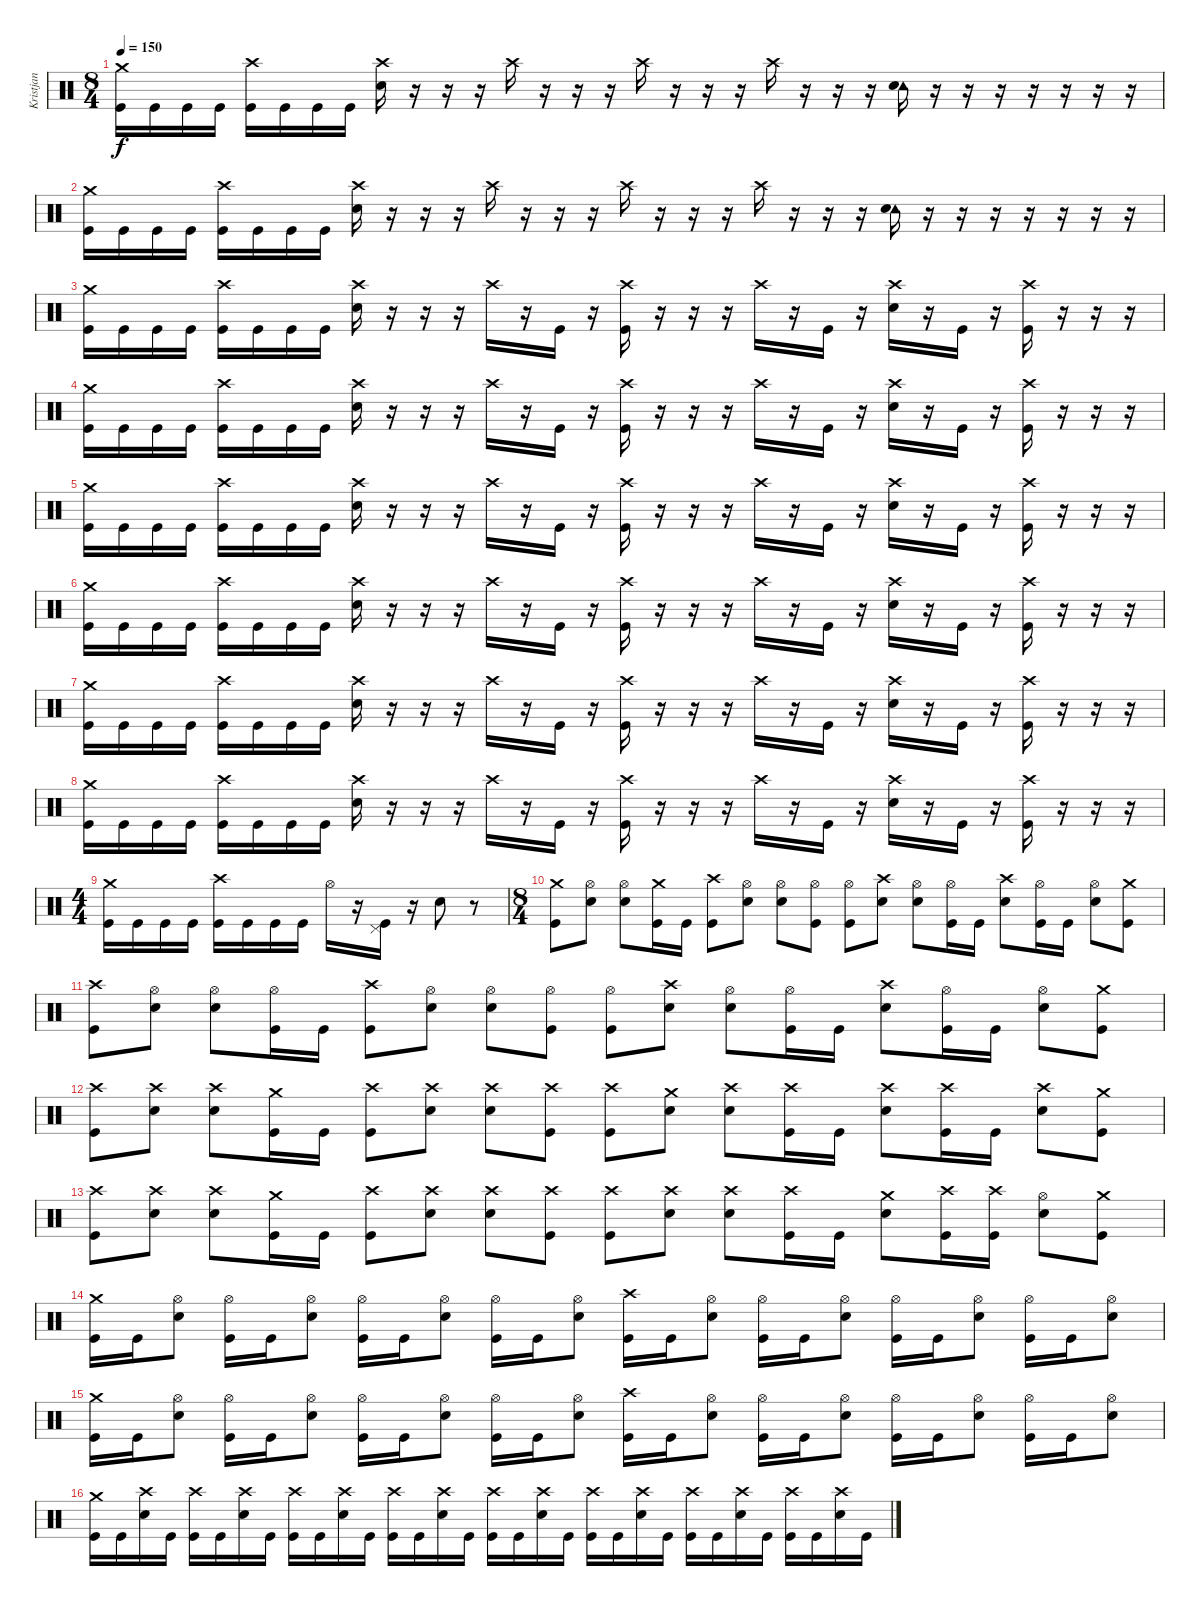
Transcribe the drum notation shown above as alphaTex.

\track ("Kristjan" "Kristjan") {instrument percussion}
\staff {score}
\articulation defaults
\ts (8 4)
\tempo 150
\clef neutral
\ks c
("Crash medium (hit)" "Kick (hit)").16{dy f} "Kick (hit)".16 "Kick (hit)".16 "Kick (hit)".16 ("Crash high (hit)" "Kick (hit)").16 "Kick (hit)".16 "Kick (hit)".16 "Kick (hit)".16 ("Crash high (hit)" "Electric Snare (hit)").16 r.16 r.16 r.16 "Crash high (hit)".16 r.16 r.16 r.16 "Crash high (hit)".16 r.16 r.16 r.16 "Crash high (hit)".16 r.16 r.16 r.16 ("Tambourine (hit)" "Electric Snare (hit)").16 r.16 r.16 r.16 r.16 r.16 r.16 r.16 |
("Crash medium (hit)" "Kick (hit)").16 "Kick (hit)".16 "Kick (hit)".16 "Kick (hit)".16 ("Crash high (hit)" "Kick (hit)").16 "Kick (hit)".16 "Kick (hit)".16 "Kick (hit)".16 ("Crash high (hit)" "Electric Snare (hit)").16 r.16 r.16 r.16 "Crash high (hit)".16 r.16 r.16 r.16 "Crash high (hit)".16 r.16 r.16 r.16 "Crash high (hit)".16 r.16 r.16 r.16 ("Tambourine (hit)" "Electric Snare (hit)").16 r.16 r.16 r.16 r.16 r.16 r.16 r.16 |
("Crash medium (hit)" "Kick (hit)").16 "Kick (hit)".16 "Kick (hit)".16 "Kick (hit)".16 ("Crash high (hit)" "Kick (hit)").16 "Kick (hit)".16 "Kick (hit)".16 "Kick (hit)".16 ("Crash high (hit)" "Electric Snare (hit)").16 r.16 r.16 r.16 "Crash high (hit)".16 r.16 "Kick (hit)".16 r.16 ("Crash high (hit)" "Kick (hit)").16 r.16 r.16 r.16 "Crash high (hit)".16 r.16 "Kick (hit)".16 r.16 ("Crash high (hit)" "Electric Snare (hit)").16 r.16 "Kick (hit)".16 r.16 ("Crash high (hit)" "Kick (hit)").16 r.16 r.16 r.16 |
("Crash medium (hit)" "Kick (hit)").16 "Kick (hit)".16 "Kick (hit)".16 "Kick (hit)".16 ("Crash high (hit)" "Kick (hit)").16 "Kick (hit)".16 "Kick (hit)".16 "Kick (hit)".16 ("Crash high (hit)" "Electric Snare (hit)").16 r.16 r.16 r.16 "Crash high (hit)".16 r.16 "Kick (hit)".16 r.16 ("Crash high (hit)" "Kick (hit)").16 r.16 r.16 r.16 "Crash high (hit)".16 r.16 "Kick (hit)".16 r.16 ("Crash high (hit)" "Electric Snare (hit)").16 r.16 "Kick (hit)".16 r.16 ("Crash high (hit)" "Kick (hit)").16 r.16 r.16 r.16 |
("Crash medium (hit)" "Kick (hit)").16 "Kick (hit)".16 "Kick (hit)".16 "Kick (hit)".16 ("Crash high (hit)" "Kick (hit)").16 "Kick (hit)".16 "Kick (hit)".16 "Kick (hit)".16 ("Crash high (hit)" "Electric Snare (hit)").16 r.16 r.16 r.16 "Crash high (hit)".16 r.16 "Kick (hit)".16 r.16 ("Crash high (hit)" "Kick (hit)").16 r.16 r.16 r.16 "Crash high (hit)".16 r.16 "Kick (hit)".16 r.16 ("Crash high (hit)" "Electric Snare (hit)").16 r.16 "Kick (hit)".16 r.16 ("Crash high (hit)" "Kick (hit)").16 r.16 r.16 r.16 |
("Crash medium (hit)" "Kick (hit)").16 "Kick (hit)".16 "Kick (hit)".16 "Kick (hit)".16 ("Crash high (hit)" "Kick (hit)").16 "Kick (hit)".16 "Kick (hit)".16 "Kick (hit)".16 ("Crash high (hit)" "Electric Snare (hit)").16 r.16 r.16 r.16 "Crash high (hit)".16 r.16 "Kick (hit)".16 r.16 ("Crash high (hit)" "Kick (hit)").16 r.16 r.16 r.16 "Crash high (hit)".16 r.16 "Kick (hit)".16 r.16 ("Crash high (hit)" "Electric Snare (hit)").16 r.16 "Kick (hit)".16 r.16 ("Crash high (hit)" "Kick (hit)").16 r.16 r.16 r.16 |
("Crash medium (hit)" "Kick (hit)").16 "Kick (hit)".16 "Kick (hit)".16 "Kick (hit)".16 ("Crash high (hit)" "Kick (hit)").16 "Kick (hit)".16 "Kick (hit)".16 "Kick (hit)".16 ("Crash high (hit)" "Electric Snare (hit)").16 r.16 r.16 r.16 "Crash high (hit)".16 r.16 "Kick (hit)".16 r.16 ("Crash high (hit)" "Kick (hit)").16 r.16 r.16 r.16 "Crash high (hit)".16 r.16 "Kick (hit)".16 r.16 ("Crash high (hit)" "Electric Snare (hit)").16 r.16 "Kick (hit)".16 r.16 ("Crash high (hit)" "Kick (hit)").16 r.16 r.16 r.16 |
("Crash medium (hit)" "Kick (hit)").16 "Kick (hit)".16 "Kick (hit)".16 "Kick (hit)".16 ("Crash high (hit)" "Kick (hit)").16 "Kick (hit)".16 "Kick (hit)".16 "Kick (hit)".16 ("Crash high (hit)" "Electric Snare (hit)").16 r.16 r.16 r.16 "Crash high (hit)".16 r.16 "Kick (hit)".16 r.16 ("Crash high (hit)" "Kick (hit)").16 r.16 r.16 r.16 "Crash high (hit)".16 r.16 "Kick (hit)".16 r.16 ("Crash high (hit)" "Electric Snare (hit)").16 r.16 "Kick (hit)".16 r.16 ("Crash high (hit)" "Kick (hit)").16 r.16 r.16 r.16 |
\ts (4 4)
("Crash medium (hit)" "Kick (hit)").16 "Kick (hit)".16 "Kick (hit)".16 "Kick (hit)".16 ("Crash high (hit)" "Kick (hit)").16 "Kick (hit)".16 "Kick (hit)".16 "Kick (hit)".16 "Hi-Hat (open)".16 r.16 ("Pedal Hi-Hat (hit)" "Kick (hit)").16 r.16 "Electric Snare (hit)".8 r.8 |
\ts (8 4)
("Crash medium (hit)" "Kick (hit)").8 ("Hi-Hat (open)" "Electric Snare (hit)").8 ("Hi-Hat (open)" "Electric Snare (hit)").8 ("Crash medium (hit)" "Kick (hit)").16 "Kick (hit)".16 ("Crash high (hit)" "Kick (hit)").8 ("Hi-Hat (open)" "Electric Snare (hit)").8 ("Hi-Hat (open)" "Electric Snare (hit)").8 ("Hi-Hat (open)" "Kick (hit)").8 ("Hi-Hat (open)" "Kick (hit)").8 ("Crash high (hit)" "Electric Snare (hit)").8 ("Hi-Hat (open)" "Electric Snare (hit)").8 ("Hi-Hat (open)" "Kick (hit)").16 "Kick (hit)".16 ("Crash high (hit)" "Electric Snare (hit)").8 ("Hi-Hat (open)" "Kick (hit)").16 "Kick (hit)".16 ("Hi-Hat (open)" "Electric Snare (hit)").8 ("Crash medium (hit)" "Kick (hit)").8 |
("Crash high (hit)" "Kick (hit)").8 ("Hi-Hat (open)" "Electric Snare (hit)").8 ("Hi-Hat (open)" "Electric Snare (hit)").8 ("Hi-Hat (open)" "Kick (hit)").16 "Kick (hit)".16 ("Crash high (hit)" "Kick (hit)").8 ("Hi-Hat (open)" "Electric Snare (hit)").8 ("Hi-Hat (open)" "Electric Snare (hit)").8 ("Hi-Hat (open)" "Kick (hit)").8 ("Hi-Hat (open)" "Kick (hit)").8 ("Crash high (hit)" "Electric Snare (hit)").8 ("Hi-Hat (open)" "Electric Snare (hit)").8 ("Hi-Hat (open)" "Kick (hit)").16 "Kick (hit)".16 ("Crash high (hit)" "Electric Snare (hit)").8 ("Hi-Hat (open)" "Kick (hit)").16 "Kick (hit)".16 ("Hi-Hat (open)" "Electric Snare (hit)").8 ("Crash medium (hit)" "Kick (hit)").8 |
("Crash high (hit)" "Kick (hit)").8 ("Crash high (hit)" "Electric Snare (hit)").8 ("Crash high (hit)" "Electric Snare (hit)").8 ("Crash medium (hit)" "Kick (hit)").16 "Kick (hit)".16 ("Crash high (hit)" "Kick (hit)").8 ("Crash high (hit)" "Electric Snare (hit)").8 ("Crash high (hit)" "Electric Snare (hit)").8 ("Crash high (hit)" "Kick (hit)").8 ("Crash high (hit)" "Kick (hit)").8 ("Crash medium (hit)" "Electric Snare (hit)").8 ("Crash high (hit)" "Electric Snare (hit)").8 ("Crash high (hit)" "Kick (hit)").16 "Kick (hit)".16 ("Crash high (hit)" "Electric Snare (hit)").8 ("Crash high (hit)" "Kick (hit)").16 "Kick (hit)".16 ("Crash high (hit)" "Electric Snare (hit)").8 ("Crash medium (hit)" "Kick (hit)").8 |
("Crash high (hit)" "Kick (hit)").8 ("Crash high (hit)" "Electric Snare (hit)").8 ("Crash high (hit)" "Electric Snare (hit)").8 ("Crash medium (hit)" "Kick (hit)").16 "Kick (hit)".16 ("Crash high (hit)" "Kick (hit)").8 ("Crash high (hit)" "Electric Snare (hit)").8 ("Crash high (hit)" "Electric Snare (hit)").8 ("Crash high (hit)" "Kick (hit)").8 ("Crash high (hit)" "Kick (hit)").8 ("Crash high (hit)" "Electric Snare (hit)").8 ("Crash high (hit)" "Electric Snare (hit)").8 ("Crash high (hit)" "Kick (hit)").16 "Kick (hit)".16 ("Crash medium (hit)" "Electric Snare (hit)").8 ("Crash high (hit)" "Kick (hit)").16 ("Crash high (hit)" "Kick (hit)").16 ("Hi-Hat (open)" "Electric Snare (hit)").8 ("Crash medium (hit)" "Kick (hit)").8 |
("Crash medium (hit)" "Kick (hit)").16 "Kick (hit)".16 ("Hi-Hat (open)" "Electric Snare (hit)").8 ("Hi-Hat (open)" "Kick (hit)").16 "Kick (hit)".16 ("Hi-Hat (open)" "Electric Snare (hit)").8 ("Hi-Hat (open)" "Kick (hit)").16 "Kick (hit)".16 ("Hi-Hat (open)" "Electric Snare (hit)").8 ("Hi-Hat (open)" "Kick (hit)").16 "Kick (hit)".16 ("Hi-Hat (open)" "Electric Snare (hit)").8 ("Crash high (hit)" "Kick (hit)").16 "Kick (hit)".16 ("Hi-Hat (open)" "Electric Snare (hit)").8 ("Hi-Hat (open)" "Kick (hit)").16 "Kick (hit)".16 ("Hi-Hat (open)" "Electric Snare (hit)").8 ("Hi-Hat (open)" "Kick (hit)").16 "Kick (hit)".16 ("Hi-Hat (open)" "Electric Snare (hit)").8 ("Hi-Hat (open)" "Kick (hit)").16 "Kick (hit)".16 ("Hi-Hat (open)" "Electric Snare (hit)").8 |
("Crash medium (hit)" "Kick (hit)").16 "Kick (hit)".16 ("Hi-Hat (open)" "Electric Snare (hit)").8 ("Hi-Hat (open)" "Kick (hit)").16 "Kick (hit)".16 ("Hi-Hat (open)" "Electric Snare (hit)").8 ("Hi-Hat (open)" "Kick (hit)").16 "Kick (hit)".16 ("Hi-Hat (open)" "Electric Snare (hit)").8 ("Hi-Hat (open)" "Kick (hit)").16 "Kick (hit)".16 ("Hi-Hat (open)" "Electric Snare (hit)").8 ("Crash high (hit)" "Kick (hit)").16 "Kick (hit)".16 ("Hi-Hat (open)" "Electric Snare (hit)").8 ("Hi-Hat (open)" "Kick (hit)").16 "Kick (hit)".16 ("Hi-Hat (open)" "Electric Snare (hit)").8 ("Hi-Hat (open)" "Kick (hit)").16 "Kick (hit)".16 ("Hi-Hat (open)" "Electric Snare (hit)").8 ("Hi-Hat (open)" "Kick (hit)").16 "Kick (hit)".16 ("Hi-Hat (open)" "Electric Snare (hit)").8 |
("Crash medium (hit)" "Kick (hit)").16 "Kick (hit)".16 ("Crash high (hit)" "Electric Snare (hit)").16 "Kick (hit)".16 ("Crash high (hit)" "Kick (hit)").16 "Kick (hit)".16 ("Crash high (hit)" "Electric Snare (hit)").16 "Kick (hit)".16 ("Crash high (hit)" "Kick (hit)").16 "Kick (hit)".16 ("Crash high (hit)" "Electric Snare (hit)").16 "Kick (hit)".16 ("Crash high (hit)" "Kick (hit)").16 "Kick (hit)".16 ("Crash high (hit)" "Electric Snare (hit)").16 "Kick (hit)".16 ("Crash high (hit)" "Kick (hit)").16 "Kick (hit)".16 ("Crash high (hit)" "Electric Snare (hit)").16 "Kick (hit)".16 ("Crash high (hit)" "Kick (hit)").16 "Kick (hit)".16 ("Crash high (hit)" "Electric Snare (hit)").16 "Kick (hit)".16 ("Crash high (hit)" "Kick (hit)").16 "Kick (hit)".16 ("Crash high (hit)" "Electric Snare (hit)").16 "Kick (hit)".16 ("Crash high (hit)" "Kick (hit)").16 "Kick (hit)".16 ("Crash high (hit)" "Electric Snare (hit)").16 "Kick (hit)".16
